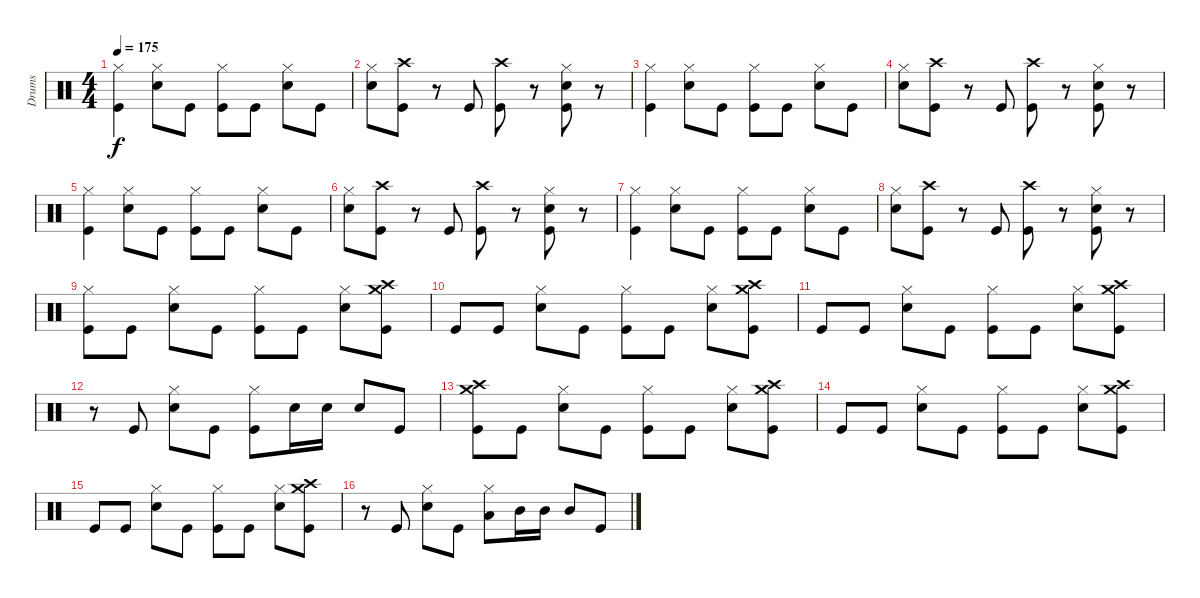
\track ("Drums" "Drums") {instrument percussion}
\staff {score}
\articulation defaults
\ts (4 4)
\tempo 175
\clef neutral
\ks c
("Hi-Hat (closed)" "Kick (hit)").4{dy f} ("Hi-Hat (closed)" "Electric Snare (hit)").8 "Kick (hit)".8 ("Hi-Hat (closed)" "Kick (hit)").8 "Kick (hit)".8 ("Hi-Hat (closed)" "Electric Snare (hit)").8 "Kick (hit)".8 |
("Electric Snare (hit)" "Hi-Hat (closed)").8 ("Kick (hit)" "Crash high (hit)").8 r.8 "Kick (hit)".8 ("Kick (hit)" "Crash high (hit)").8 r.8 ("Kick (hit)" "Electric Snare (hit)" "Hi-Hat (closed)").8 r.8 |
("Hi-Hat (closed)" "Kick (hit)").4 ("Hi-Hat (closed)" "Electric Snare (hit)").8 "Kick (hit)".8 ("Hi-Hat (closed)" "Kick (hit)").8 "Kick (hit)".8 ("Hi-Hat (closed)" "Electric Snare (hit)").8 "Kick (hit)".8 |
("Electric Snare (hit)" "Hi-Hat (closed)").8 ("Kick (hit)" "Crash high (hit)").8 r.8 "Kick (hit)".8 ("Kick (hit)" "Crash high (hit)").8 r.8 ("Kick (hit)" "Electric Snare (hit)" "Hi-Hat (closed)").8 r.8 |
("Hi-Hat (closed)" "Kick (hit)").4 ("Hi-Hat (closed)" "Electric Snare (hit)").8 "Kick (hit)".8 ("Hi-Hat (closed)" "Kick (hit)").8 "Kick (hit)".8 ("Hi-Hat (closed)" "Electric Snare (hit)").8 "Kick (hit)".8 |
("Electric Snare (hit)" "Hi-Hat (closed)").8 ("Kick (hit)" "Crash high (hit)").8 r.8 "Kick (hit)".8 ("Kick (hit)" "Crash high (hit)").8 r.8 ("Kick (hit)" "Electric Snare (hit)" "Hi-Hat (closed)").8 r.8 |
("Hi-Hat (closed)" "Kick (hit)").4 ("Hi-Hat (closed)" "Electric Snare (hit)").8 "Kick (hit)".8 ("Hi-Hat (closed)" "Kick (hit)").8 "Kick (hit)".8 ("Hi-Hat (closed)" "Electric Snare (hit)").8 "Kick (hit)".8 |
("Electric Snare (hit)" "Hi-Hat (closed)").8 ("Kick (hit)" "Crash high (hit)").8 r.8 "Kick (hit)".8 ("Kick (hit)" "Crash high (hit)").8 r.8 ("Kick (hit)" "Electric Snare (hit)" "Hi-Hat (closed)").8 r.8 |
("Hi-Hat (closed)" "Kick (hit)").8 "Kick (hit)".8 ("Hi-Hat (closed)" "Electric Snare (hit)").8 "Kick (hit)".8 ("Hi-Hat (closed)" "Kick (hit)").8 "Kick (hit)".8 ("Hi-Hat (closed)" "Electric Snare (hit)").8 ("Crash medium (hit)" "Kick (hit)" "Crash high (hit)").8 |
"Kick (hit)".8 "Kick (hit)".8 ("Electric Snare (hit)" "Hi-Hat (closed)").8 "Kick (hit)".8 ("Kick (hit)" "Hi-Hat (closed)").8 "Kick (hit)".8 ("Electric Snare (hit)" "Hi-Hat (closed)").8 ("Crash high (hit)" "Kick (hit)" "Crash medium (hit)").8 |
"Kick (hit)".8 "Kick (hit)".8 ("Electric Snare (hit)" "Hi-Hat (closed)").8 "Kick (hit)".8 ("Kick (hit)" "Hi-Hat (closed)").8 "Kick (hit)".8 ("Electric Snare (hit)" "Hi-Hat (closed)").8 ("Crash high (hit)" "Kick (hit)" "Crash medium (hit)").8 |
r.8 "Kick (hit)".8 ("Hi-Hat (closed)" "Electric Snare (hit)").8 "Kick (hit)".8 ("Hi-Hat (closed)" "Kick (hit)").8 "Snare (hit) 2".16 "Electric Snare (hit)".16 "Electric Snare (hit)".8 "Kick (hit)".8 |
("Kick (hit)" "Crash high (hit)" "Crash medium (hit)").8 "Kick (hit)".8 ("Hi-Hat (closed)" "Electric Snare (hit)").8 "Kick (hit)".8 ("Hi-Hat (closed)" "Kick (hit)").8 "Kick (hit)".8 ("Hi-Hat (closed)" "Electric Snare (hit)").8 ("Crash medium (hit)" "Kick (hit)" "Crash high (hit)").8 |
"Kick (hit)".8 "Kick (hit)".8 ("Electric Snare (hit)" "Hi-Hat (closed)").8 "Kick (hit)".8 ("Kick (hit)" "Hi-Hat (closed)").8 "Kick (hit)".8 ("Electric Snare (hit)" "Hi-Hat (closed)").8 ("Crash high (hit)" "Kick (hit)" "Crash medium (hit)").8 |
"Kick (hit)".8 "Kick (hit)".8 ("Electric Snare (hit)" "Hi-Hat (closed)").8 "Kick (hit)".8 ("Kick (hit)" "Hi-Hat (closed)").8 "Kick (hit)".8 ("Electric Snare (hit)" "Hi-Hat (closed)").8 ("Crash high (hit)" "Kick (hit)" "Crash medium (hit)").8 |
r.8 "Kick (hit)".8 ("Hi-Hat (closed)" "Electric Snare (hit)").8 "Kick (hit)".8 ("Hi-Hat (closed)" "Low Tom (hit)").8 "Mid Tom (hit)".16 "Mid Tom (hit)".16 "Mid Tom (hit)".8 "Kick (hit)".8
